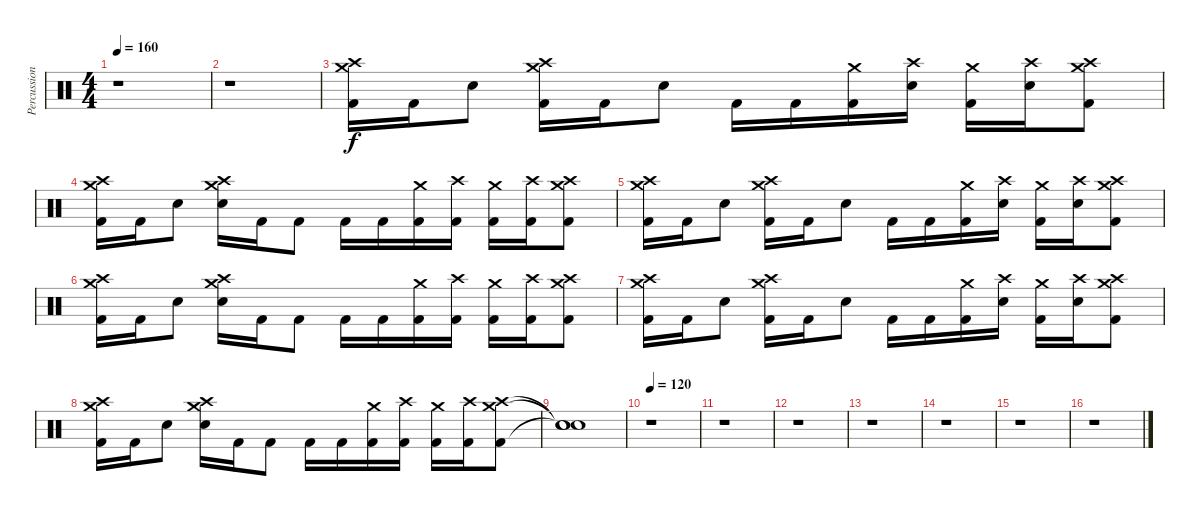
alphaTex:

\track ("Percussion" "Percussion") {instrument percussion}
\staff {score}
\articulation defaults
\ts (4 4)
\tempo 160
\tempo 180
\tempo 160
\clef neutral
\ks c
r.1{dy f} |
r.1 |
("Crash high (hit)" "Crash medium (hit)" "Kick (hit) 2").16 "Kick (hit) 2".16 "Snare (hit) 2".8 ("Crash high (hit)" "Crash medium (hit)" "Kick (hit) 2").16 "Kick (hit) 2".16 "Snare (hit) 2".8 "Kick (hit) 2".16 "Kick (hit) 2".16 ("Crash medium (hit)" "Kick (hit) 2").16 ("Crash high (hit)" "Snare (hit) 2").16 ("Crash medium (hit)" "Kick (hit) 2").16 ("Crash high (hit)" "Snare (hit) 2").16 ("Crash medium (hit)" "Crash high (hit)" "Kick (hit) 2").8 |
("Crash high (hit)" "Crash medium (hit)" "Kick (hit) 2").16 "Kick (hit) 2".16 "Snare (hit) 2".8 ("Crash high (hit)" "Crash medium (hit)" "Snare (hit) 2").16 "Kick (hit) 2".16 "Kick (hit) 2".8 "Kick (hit) 2".16 "Kick (hit) 2".16 ("Crash medium (hit)" "Kick (hit) 2").16 ("Crash high (hit)" "Kick (hit) 2").16 ("Crash medium (hit)" "Kick (hit) 2").16 ("Crash high (hit)" "Kick (hit) 2").16 ("Crash medium (hit)" "Crash high (hit)" "Kick (hit) 2").8 |
("Crash high (hit)" "Crash medium (hit)" "Kick (hit) 2").16 "Kick (hit) 2".16 "Snare (hit) 2".8 ("Crash high (hit)" "Crash medium (hit)" "Kick (hit) 2").16 "Kick (hit) 2".16 "Snare (hit) 2".8 "Kick (hit) 2".16 "Kick (hit) 2".16 ("Crash medium (hit)" "Kick (hit) 2").16 ("Crash high (hit)" "Snare (hit) 2").16 ("Crash medium (hit)" "Kick (hit) 2").16 ("Crash high (hit)" "Snare (hit) 2").16 ("Crash medium (hit)" "Crash high (hit)" "Kick (hit) 2").8 |
("Crash high (hit)" "Crash medium (hit)" "Kick (hit) 2").16 "Kick (hit) 2".16 "Snare (hit) 2".8 ("Crash high (hit)" "Crash medium (hit)" "Snare (hit) 2").16 "Kick (hit) 2".16 "Kick (hit) 2".8 "Kick (hit) 2".16 "Kick (hit) 2".16 ("Crash medium (hit)" "Kick (hit) 2").16 ("Crash high (hit)" "Kick (hit) 2").16 ("Crash medium (hit)" "Kick (hit) 2").16 ("Crash high (hit)" "Kick (hit) 2").16 ("Crash medium (hit)" "Crash high (hit)" "Kick (hit) 2").8 |
("Crash high (hit)" "Crash medium (hit)" "Kick (hit) 2").16 "Kick (hit) 2".16 "Snare (hit) 2".8 ("Crash high (hit)" "Crash medium (hit)" "Kick (hit) 2").16 "Kick (hit) 2".16 "Snare (hit) 2".8 "Kick (hit) 2".16 "Kick (hit) 2".16 ("Crash medium (hit)" "Kick (hit) 2").16 ("Crash high (hit)" "Snare (hit) 2").16 ("Crash medium (hit)" "Kick (hit) 2").16 ("Crash high (hit)" "Snare (hit) 2").16 ("Crash medium (hit)" "Crash high (hit)" "Kick (hit) 2").8 |
("Crash high (hit)" "Crash medium (hit)" "Kick (hit) 2").16 "Kick (hit) 2".16 "Snare (hit) 2".8 ("Crash high (hit)" "Crash medium (hit)" "Snare (hit) 2").16 "Kick (hit) 2".16 "Kick (hit) 2".8 "Kick (hit) 2".16 "Kick (hit) 2".16 ("Crash medium (hit)" "Kick (hit) 2").16 ("Crash high (hit)" "Kick (hit) 2").16 ("Crash medium (hit)" "Kick (hit) 2").16 ("Crash high (hit)" "Kick (hit) 2").16 ("Crash medium (hit)" "Crash high (hit)" "Kick (hit) 2").8 |
("Snare (hit)"{t} "Snare (hit)"{t} "Snare (hit)"{t}).1 |
\tempo 120
r.1 |
r.1 |
r.1 |
r.1 |
r.1 |
r.1 |
r.1
